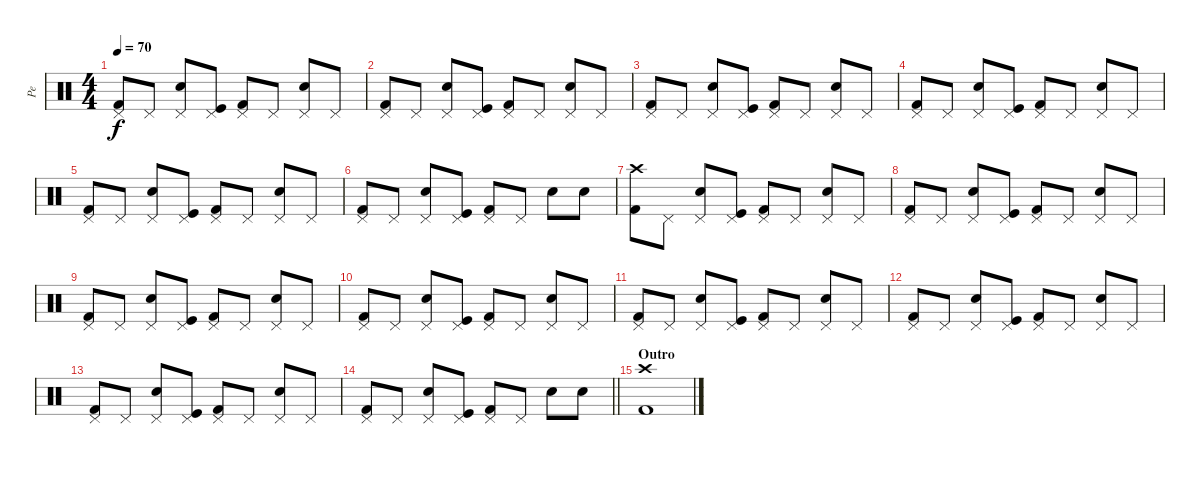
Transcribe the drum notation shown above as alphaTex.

\track ("Pe" "Pe") {instrument percussion}
\staff {score}
\articulation defaults
\ts (4 4)
\tempo 70
\clef neutral
\ks c
("Kick (hit) 2" "Pedal Hi-Hat (hit)").8{dy f} "Pedal Hi-Hat (hit)".8 ("Electric Snare (hit)" "Pedal Hi-Hat (hit)").8 ("Kick (hit)" "Pedal Hi-Hat (hit)").8 ("Kick (hit) 2" "Pedal Hi-Hat (hit)").8 "Pedal Hi-Hat (hit)".8 ("Electric Snare (hit)" "Pedal Hi-Hat (hit)").8 "Pedal Hi-Hat (hit)".8 |
("Kick (hit) 2" "Pedal Hi-Hat (hit)").8 "Pedal Hi-Hat (hit)".8 ("Electric Snare (hit)" "Pedal Hi-Hat (hit)").8 ("Kick (hit)" "Pedal Hi-Hat (hit)").8 ("Kick (hit) 2" "Pedal Hi-Hat (hit)").8 "Pedal Hi-Hat (hit)".8 ("Electric Snare (hit)" "Pedal Hi-Hat (hit)").8 "Pedal Hi-Hat (hit)".8 |
("Kick (hit) 2" "Pedal Hi-Hat (hit)").8 "Pedal Hi-Hat (hit)".8 ("Electric Snare (hit)" "Pedal Hi-Hat (hit)").8 ("Kick (hit)" "Pedal Hi-Hat (hit)").8 ("Kick (hit) 2" "Pedal Hi-Hat (hit)").8 "Pedal Hi-Hat (hit)".8 ("Electric Snare (hit)" "Pedal Hi-Hat (hit)").8 "Pedal Hi-Hat (hit)".8 |
("Kick (hit) 2" "Pedal Hi-Hat (hit)").8 "Pedal Hi-Hat (hit)".8 ("Electric Snare (hit)" "Pedal Hi-Hat (hit)").8 ("Kick (hit)" "Pedal Hi-Hat (hit)").8 ("Kick (hit) 2" "Pedal Hi-Hat (hit)").8 "Pedal Hi-Hat (hit)".8 ("Electric Snare (hit)" "Pedal Hi-Hat (hit)").8 "Pedal Hi-Hat (hit)".8 |
("Kick (hit) 2" "Pedal Hi-Hat (hit)").8 "Pedal Hi-Hat (hit)".8 ("Electric Snare (hit)" "Pedal Hi-Hat (hit)").8 ("Kick (hit)" "Pedal Hi-Hat (hit)").8 ("Kick (hit) 2" "Pedal Hi-Hat (hit)").8 "Pedal Hi-Hat (hit)".8 ("Electric Snare (hit)" "Pedal Hi-Hat (hit)").8 "Pedal Hi-Hat (hit)".8 |
("Kick (hit) 2" "Pedal Hi-Hat (hit)").8 "Pedal Hi-Hat (hit)".8 ("Electric Snare (hit)" "Pedal Hi-Hat (hit)").8 ("Kick (hit)" "Pedal Hi-Hat (hit)").8 ("Kick (hit) 2" "Pedal Hi-Hat (hit)").8 "Pedal Hi-Hat (hit)".8 "Electric Snare (hit)".8 "Electric Snare (hit)".8 |
("Kick (hit) 2" "Crash high (hit)").8 "Pedal Hi-Hat (hit)".8 ("Electric Snare (hit)" "Pedal Hi-Hat (hit)").8 ("Kick (hit)" "Pedal Hi-Hat (hit)").8 ("Kick (hit) 2" "Pedal Hi-Hat (hit)").8 "Pedal Hi-Hat (hit)".8 ("Electric Snare (hit)" "Pedal Hi-Hat (hit)").8 "Pedal Hi-Hat (hit)".8 |
("Kick (hit) 2" "Pedal Hi-Hat (hit)").8 "Pedal Hi-Hat (hit)".8 ("Electric Snare (hit)" "Pedal Hi-Hat (hit)").8 ("Kick (hit)" "Pedal Hi-Hat (hit)").8 ("Kick (hit) 2" "Pedal Hi-Hat (hit)").8 "Pedal Hi-Hat (hit)".8 ("Electric Snare (hit)" "Pedal Hi-Hat (hit)").8 "Pedal Hi-Hat (hit)".8 |
("Kick (hit) 2" "Pedal Hi-Hat (hit)").8 "Pedal Hi-Hat (hit)".8 ("Electric Snare (hit)" "Pedal Hi-Hat (hit)").8 ("Kick (hit)" "Pedal Hi-Hat (hit)").8 ("Kick (hit) 2" "Pedal Hi-Hat (hit)").8 "Pedal Hi-Hat (hit)".8 ("Electric Snare (hit)" "Pedal Hi-Hat (hit)").8 "Pedal Hi-Hat (hit)".8 |
("Kick (hit) 2" "Pedal Hi-Hat (hit)").8 "Pedal Hi-Hat (hit)".8 ("Electric Snare (hit)" "Pedal Hi-Hat (hit)").8 ("Kick (hit)" "Pedal Hi-Hat (hit)").8 ("Kick (hit) 2" "Pedal Hi-Hat (hit)").8 "Pedal Hi-Hat (hit)".8 ("Electric Snare (hit)" "Pedal Hi-Hat (hit)").8 "Pedal Hi-Hat (hit)".8 |
("Kick (hit) 2" "Pedal Hi-Hat (hit)").8 "Pedal Hi-Hat (hit)".8 ("Electric Snare (hit)" "Pedal Hi-Hat (hit)").8 ("Kick (hit)" "Pedal Hi-Hat (hit)").8 ("Kick (hit) 2" "Pedal Hi-Hat (hit)").8 "Pedal Hi-Hat (hit)".8 ("Electric Snare (hit)" "Pedal Hi-Hat (hit)").8 "Pedal Hi-Hat (hit)".8 |
("Kick (hit) 2" "Pedal Hi-Hat (hit)").8 "Pedal Hi-Hat (hit)".8 ("Electric Snare (hit)" "Pedal Hi-Hat (hit)").8 ("Kick (hit)" "Pedal Hi-Hat (hit)").8 ("Kick (hit) 2" "Pedal Hi-Hat (hit)").8 "Pedal Hi-Hat (hit)".8 ("Electric Snare (hit)" "Pedal Hi-Hat (hit)").8 "Pedal Hi-Hat (hit)".8 |
("Kick (hit) 2" "Pedal Hi-Hat (hit)").8 "Pedal Hi-Hat (hit)".8 ("Electric Snare (hit)" "Pedal Hi-Hat (hit)").8 ("Kick (hit)" "Pedal Hi-Hat (hit)").8 ("Kick (hit) 2" "Pedal Hi-Hat (hit)").8 "Pedal Hi-Hat (hit)".8 ("Electric Snare (hit)" "Pedal Hi-Hat (hit)").8 "Pedal Hi-Hat (hit)".8 |
\barLineRight lightlight
("Kick (hit) 2" "Pedal Hi-Hat (hit)").8 "Pedal Hi-Hat (hit)".8 ("Electric Snare (hit)" "Pedal Hi-Hat (hit)").8 ("Kick (hit)" "Pedal Hi-Hat (hit)").8 ("Kick (hit) 2" "Pedal Hi-Hat (hit)").8 "Pedal Hi-Hat (hit)".8 "Electric Snare (hit)".8 "Electric Snare (hit)".8 |
\section ("" "Outro")
("Kick (hit) 2" "Crash high (hit)").1
